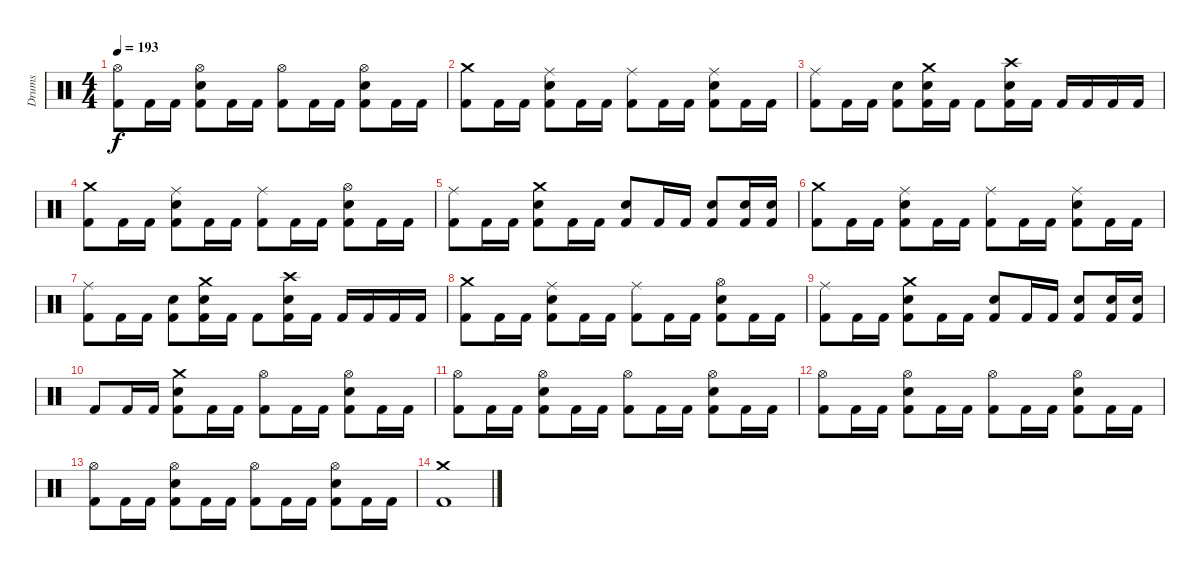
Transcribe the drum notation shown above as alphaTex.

\track ("Drums" "Drums") {instrument percussion}
\staff {score}
\articulation defaults
\ts (4 4)
\tempo 193
\clef neutral
\ks c
("Hi-Hat (open)" "Kick (hit) 2").8{dy f} "Kick (hit) 2".16 "Kick (hit) 2".16 ("Hi-Hat (open)" "Snare (hit) 2" "Kick (hit) 2").8 "Kick (hit) 2".16 "Kick (hit) 2".16 ("Hi-Hat (open)" "Kick (hit) 2").8 "Kick (hit) 2".16 "Kick (hit) 2".16 ("Hi-Hat (open)" "Snare (hit) 2" "Kick (hit) 2").8 "Kick (hit) 2".16 "Kick (hit) 2".16 |
("Crash medium (hit)" "Kick (hit) 2").8 "Kick (hit) 2".16 "Kick (hit) 2".16 ("Ride (middle)" "Snare (hit) 2" "Kick (hit) 2").8 "Kick (hit) 2".16 "Kick (hit) 2".16 ("Ride (middle)" "Kick (hit) 2").8 "Kick (hit) 2".16 "Kick (hit) 2".16 ("Ride (middle)" "Snare (hit) 2" "Kick (hit) 2").8 "Kick (hit) 2".16 "Kick (hit) 2".16 |
("Ride (middle)" "Kick (hit) 2").8 "Kick (hit) 2".16 "Kick (hit) 2".16 ("Snare (hit) 2" "Kick (hit) 2").8 ("Crash medium (hit)" "Snare (hit) 2" "Kick (hit) 2").16 "Kick (hit) 2".16 "Kick (hit) 2".8 ("Crash high (hit)" "Snare (hit) 2" "Kick (hit) 2").16 "Kick (hit) 2".16 "Kick (hit) 2".16 "Kick (hit) 2".16 "Kick (hit) 2".16 "Kick (hit) 2".16 |
("Crash medium (hit)" "Kick (hit) 2").8 "Kick (hit) 2".16 "Kick (hit) 2".16 ("Ride (middle)" "Snare (hit) 2" "Kick (hit) 2").8 "Kick (hit) 2".16 "Kick (hit) 2".16 ("Ride (middle)" "Kick (hit) 2").8 "Kick (hit) 2".16 "Kick (hit) 2".16 ("Hi-Hat (open)" "Snare (hit) 2" "Kick (hit) 2").8 "Kick (hit) 2".16 "Kick (hit) 2".16 |
("Ride (middle)" "Kick (hit) 2").8 "Kick (hit) 2".16 "Kick (hit) 2".16 ("Crash medium (hit)" "Snare (hit) 2" "Kick (hit) 2").8 "Kick (hit) 2".16 "Kick (hit) 2".16 ("Snare (hit) 2" "Kick (hit) 2").8 "Kick (hit) 2".16 "Kick (hit) 2".16 ("Snare (hit) 2" "Kick (hit) 2").8 ("Snare (hit) 2" "Kick (hit) 2").16 ("Snare (hit) 2" "Kick (hit) 2").16 |
("Crash medium (hit)" "Kick (hit) 2").8 "Kick (hit) 2".16 "Kick (hit) 2".16 ("Ride (middle)" "Snare (hit) 2" "Kick (hit) 2").8 "Kick (hit) 2".16 "Kick (hit) 2".16 ("Ride (middle)" "Kick (hit) 2").8 "Kick (hit) 2".16 "Kick (hit) 2".16 ("Ride (middle)" "Snare (hit) 2" "Kick (hit) 2").8 "Kick (hit) 2".16 "Kick (hit) 2".16 |
("Ride (middle)" "Kick (hit) 2").8 "Kick (hit) 2".16 "Kick (hit) 2".16 ("Snare (hit) 2" "Kick (hit) 2").8 ("Crash medium (hit)" "Snare (hit) 2" "Kick (hit) 2").16 "Kick (hit) 2".16 "Kick (hit) 2".8 ("Crash high (hit)" "Snare (hit) 2" "Kick (hit) 2").16 "Kick (hit) 2".16 "Kick (hit) 2".16 "Kick (hit) 2".16 "Kick (hit) 2".16 "Kick (hit) 2".16 |
("Crash medium (hit)" "Kick (hit) 2").8 "Kick (hit) 2".16 "Kick (hit) 2".16 ("Ride (middle)" "Snare (hit) 2" "Kick (hit) 2").8 "Kick (hit) 2".16 "Kick (hit) 2".16 ("Ride (middle)" "Kick (hit) 2").8 "Kick (hit) 2".16 "Kick (hit) 2".16 ("Hi-Hat (open)" "Snare (hit) 2" "Kick (hit) 2").8 "Kick (hit) 2".16 "Kick (hit) 2".16 |
("Ride (middle)" "Kick (hit) 2").8 "Kick (hit) 2".16 "Kick (hit) 2".16 ("Crash medium (hit)" "Snare (hit) 2" "Kick (hit) 2").8 "Kick (hit) 2".16 "Kick (hit) 2".16 ("Snare (hit) 2" "Kick (hit) 2").8 "Kick (hit) 2".16 "Kick (hit) 2".16 ("Snare (hit) 2" "Kick (hit) 2").8 ("Snare (hit) 2" "Kick (hit) 2").16 ("Snare (hit) 2" "Kick (hit) 2").16 |
"Kick (hit) 2".8 "Kick (hit) 2".16 "Kick (hit) 2".16 ("Crash medium (hit)" "Snare (hit) 2" "Kick (hit) 2").8 "Kick (hit) 2".16 "Kick (hit) 2".16 ("Hi-Hat (open)" "Kick (hit) 2").8 "Kick (hit) 2".16 "Kick (hit) 2".16 ("Hi-Hat (open)" "Snare (hit) 2" "Kick (hit) 2").8 "Kick (hit) 2".16 "Kick (hit) 2".16 |
("Hi-Hat (open)" "Kick (hit) 2").8 "Kick (hit) 2".16 "Kick (hit) 2".16 ("Hi-Hat (open)" "Snare (hit) 2" "Kick (hit) 2").8 "Kick (hit) 2".16 "Kick (hit) 2".16 ("Hi-Hat (open)" "Kick (hit) 2").8 "Kick (hit) 2".16 "Kick (hit) 2".16 ("Hi-Hat (open)" "Snare (hit) 2" "Kick (hit) 2").8 "Kick (hit) 2".16 "Kick (hit) 2".16 |
("Hi-Hat (open)" "Kick (hit) 2").8 "Kick (hit) 2".16 "Kick (hit) 2".16 ("Hi-Hat (open)" "Snare (hit) 2" "Kick (hit) 2").8 "Kick (hit) 2".16 "Kick (hit) 2".16 ("Hi-Hat (open)" "Kick (hit) 2").8 "Kick (hit) 2".16 "Kick (hit) 2".16 ("Hi-Hat (open)" "Snare (hit) 2" "Kick (hit) 2").8 "Kick (hit) 2".16 "Kick (hit) 2".16 |
("Hi-Hat (open)" "Kick (hit) 2").8 "Kick (hit) 2".16 "Kick (hit) 2".16 ("Hi-Hat (open)" "Snare (hit) 2" "Kick (hit) 2").8 "Kick (hit) 2".16 "Kick (hit) 2".16 ("Hi-Hat (open)" "Kick (hit) 2").8 "Kick (hit) 2".16 "Kick (hit) 2".16 ("Hi-Hat (open)" "Snare (hit) 2" "Kick (hit) 2").8 "Kick (hit) 2".16 "Kick (hit) 2".16 |
("Crash medium (hit)" "Kick (hit) 2").1
